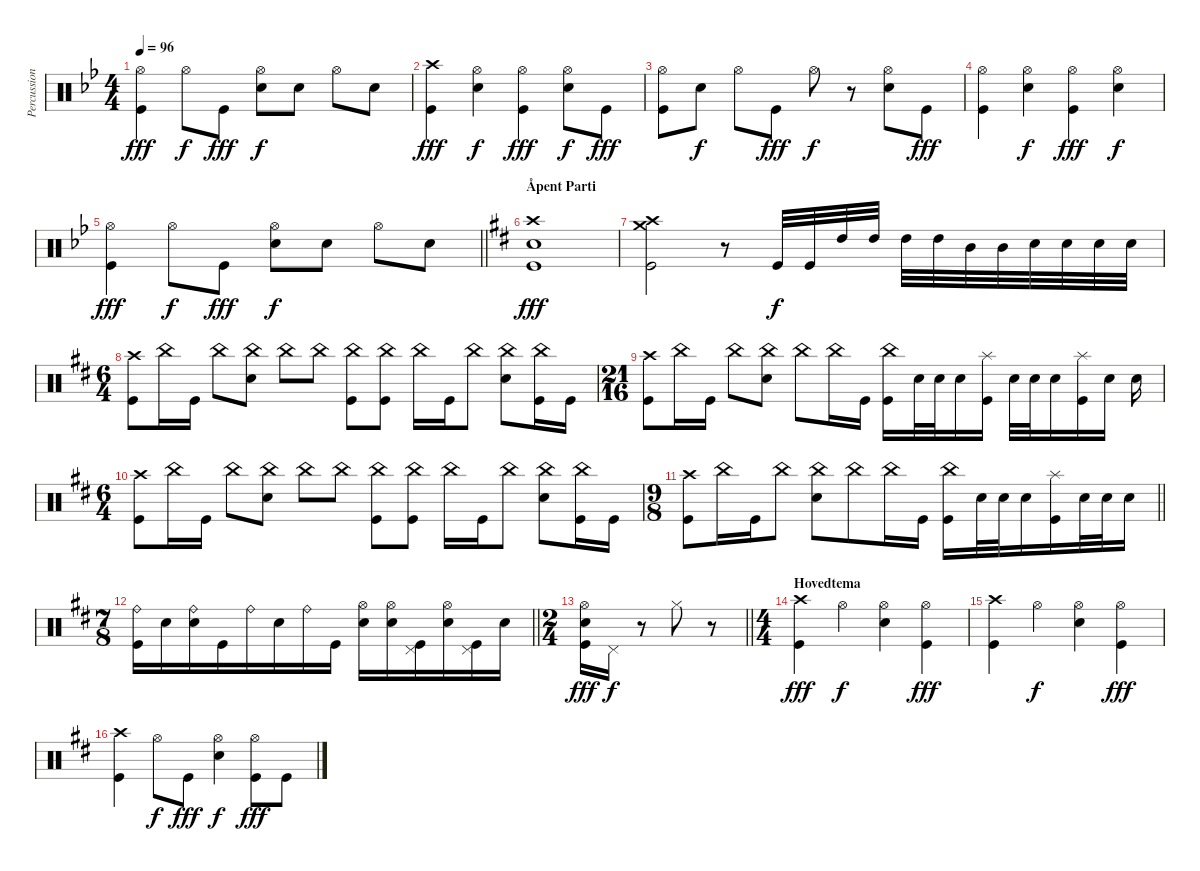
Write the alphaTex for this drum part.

\track ("Percussion" "Percussion") {instrument percussion}
\staff {score}
\articulation defaults
\ts (4 4)
\tempo 96
\clef neutral
\ks gminor
("Hi-Hat (open)" "Kick (hit)").4{dy fff} "Hi-Hat (open)".8{dy f} "Kick (hit)".8{dy fff} ("Hi-Hat (open)" "Electric Snare (hit)").8{dy f} "Electric Snare (hit)".8 "Hi-Hat (open)".8 "Electric Snare (hit)".8 |
("Crash high (hit)" "Kick (hit)").4{dy fff} ("Hi-Hat (open)" "Electric Snare (hit)").4{dy f} ("Hi-Hat (open)" "Kick (hit)").4{dy fff} ("Hi-Hat (open)" "Electric Snare (hit)").8{dy f} "Kick (hit)".8{dy fff} |
("Hi-Hat (open)" "Kick (hit)").8 "Electric Snare (hit)".8{dy f} "Hi-Hat (open)".8 "Kick (hit)".8{dy fff} "Hi-Hat (open)".8{dy f} r.8 ("Hi-Hat (open)" "Electric Snare (hit)").8 "Kick (hit)".8{dy fff} |
("Hi-Hat (open)" "Kick (hit)").4 ("Hi-Hat (open)" "Electric Snare (hit)").4{dy f} ("Hi-Hat (open)" "Kick (hit)").4{dy fff} ("Hi-Hat (open)" "Electric Snare (hit)").4{dy f} |
\barLineRight lightlight
("Hi-Hat (open)" "Kick (hit)").4{dy fff} "Hi-Hat (open)".8{dy f} "Kick (hit)".8{dy fff} ("Hi-Hat (open)" "Electric Snare (hit)").8{dy f} "Electric Snare (hit)".8 "Hi-Hat (open)".8 "Electric Snare (hit)".8 |
\section ("" "Åpent Parti")
\ks bminor
("Crash high (hit)" "Electric Snare (hit)" "Kick (hit)").1{dy fff} |
("Crash medium (hit)" "Crash high (hit)" "Kick (hit)").2 r.8 "Kick (hit)".32{dy f} "Kick (hit)".32 "High Tom (hit)".32 "High Tom (hit)".32 "High Tom (hit)".32 "High Tom (hit)".32 "Mid Tom (hit)".32 "Mid Tom (hit)".32 "Electric Snare (hit)".32 "Electric Snare (hit)".32 "Electric Snare (hit)".32 "Electric Snare (hit)".32 |
\ts (6 4)
("Crash high (hit)" "Kick (hit)").8 "China (hit)".16 "Kick (hit)".16 "China (hit)".8 ("China (hit)" "Electric Snare (hit)").8 "China (hit)".8 "China (hit)".8 ("China (hit)" "Kick (hit)").8 ("China (hit)" "Kick (hit)").8 "China (hit)".16 "Kick (hit)".16 "China (hit)".8 ("China (hit)" "Electric Snare (hit)").8 ("China (hit)" "Kick (hit)").16 "Kick (hit)".16 |
\ts (21 16)
("Crash high (hit)" "Kick (hit)").8 "China (hit)".16 "Kick (hit)".16 "China (hit)".8 ("China (hit)" "Electric Snare (hit)").8 "China (hit)".8 "China (hit)".16 "Kick (hit)".16 ("China (hit)" "Kick (hit)").16 "Electric Snare (hit)".32 "Electric Snare (hit)".32 "Electric Snare (hit)".16 ("Splash (hit)" "Kick (hit)").16 "Electric Snare (hit)".32 "Electric Snare (hit)".32 "Electric Snare (hit)".16 ("Splash (hit)" "Kick (hit)").16 "Electric Snare (hit)".16 "Electric Snare (hit)".16 |
\ts (6 4)
("Crash high (hit)" "Kick (hit)").8 "China (hit)".16 "Kick (hit)".16 "China (hit)".8 ("China (hit)" "Electric Snare (hit)").8 "China (hit)".8 "China (hit)".8 ("China (hit)" "Kick (hit)").8 ("China (hit)" "Kick (hit)").8 "China (hit)".16 "Kick (hit)".16 "China (hit)".8 ("China (hit)" "Electric Snare (hit)").8 ("China (hit)" "Kick (hit)").16 "Kick (hit)".16 |
\ts (9 8)
\barLineRight lightlight
("Crash high (hit)" "Kick (hit)").8 "China (hit)".16 "Kick (hit)".16 "China (hit)".8 ("China (hit)" "Electric Snare (hit)").8 "China (hit)".8 "China (hit)".16 "Kick (hit)".16 ("China (hit)" "Kick (hit)").16 "Electric Snare (hit)".32 "Electric Snare (hit)".32 "Electric Snare (hit)".16 ("Splash (hit)" "Kick (hit)").16 "Electric Snare (hit)".32 "Electric Snare (hit)".32 "Electric Snare (hit)".16 |
\ts (7 8)
\barLineRight lightlight
("Ride (bell)" "Kick (hit)").16 "Electric Snare (hit)".16 ("Ride (bell)" "Electric Snare (hit)").16 "Kick (hit)".16 "Ride (bell)".16 "Electric Snare (hit)".16 "Ride (bell)".16 "Kick (hit)".16 ("Hi-Hat (open)" "Electric Snare (hit)").16 ("Hi-Hat (open)" "Electric Snare (hit)").16 ("Pedal Hi-Hat (hit)" "Kick (hit)").16 ("Hi-Hat (open)" "Electric Snare (hit)").16 ("Pedal Hi-Hat (hit)" "Kick (hit)").16 "Electric Snare (hit)".16 |
\ts (2 4)
\barLineRight lightlight
("Hi-Hat (open)" "Electric Snare (hit)" "Kick (hit)").16{dy fff} "Pedal Hi-Hat (hit)".16{dy f} r.8 "Hi-Hat (closed)".8 r.8 |
\ts (4 4)
\section ("" "Hovedtema")
("Crash high (hit)" "Kick (hit)").4{dy fff} "Hi-Hat (open)".4{dy f} ("Hi-Hat (open)" "Electric Snare (hit)").4 ("Hi-Hat (open)" "Kick (hit)").4{dy fff} |
("Crash high (hit)" "Kick (hit)").4 "Hi-Hat (open)".4{dy f} ("Hi-Hat (open)" "Electric Snare (hit)").4 ("Hi-Hat (open)" "Kick (hit)").4{dy fff} |
("Crash high (hit)" "Kick (hit)").4 "Hi-Hat (open)".8{dy f} "Kick (hit)".8{dy fff} ("Hi-Hat (open)" "Electric Snare (hit)").4{dy f} ("Hi-Hat (open)" "Kick (hit)").8{dy fff} "Kick (hit)".8
